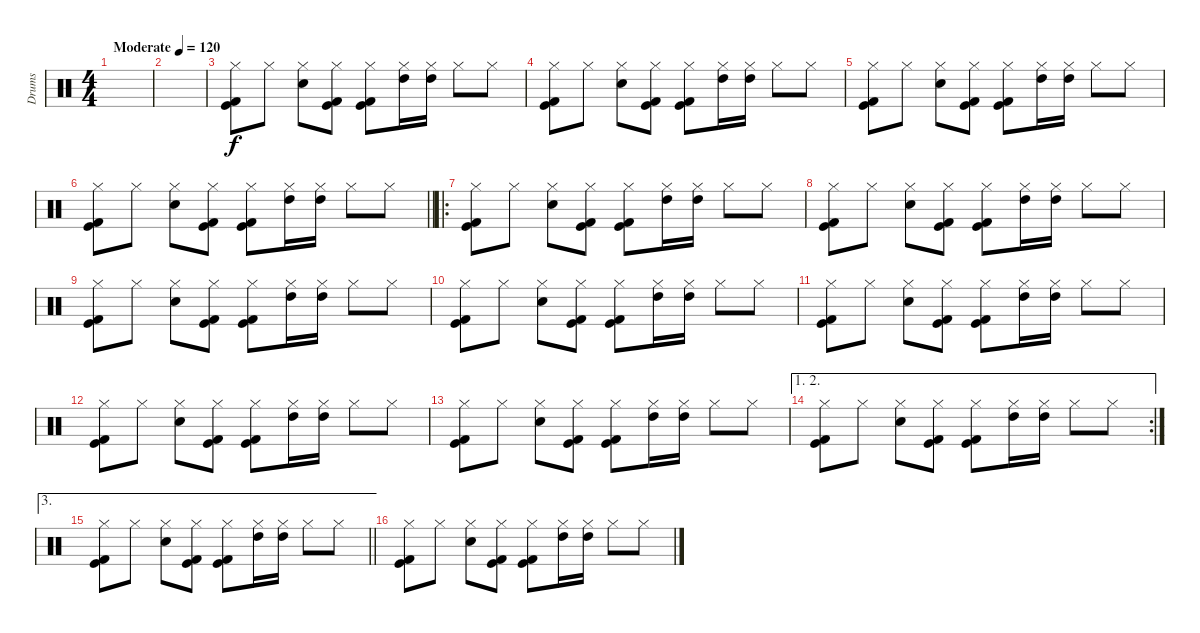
\track ("Drums" "Drums") {instrument percussion}
\staff {score}
\articulation defaults
\ts (4 4)
\tempo (120 "Moderate")
\clef neutral
\ks c
|
|
("Hi-Hat (closed)" "Kick (hit) 2" "Kick (hit)").8 "Hi-Hat (closed)".8 ("Hi-Hat (closed)" "Snare (hit) 2").8 ("Hi-Hat (closed)" "Kick (hit) 2" "Kick (hit)").8 ("Hi-Hat (closed)" "Kick (hit) 2" "Kick (hit)").8 ("Hi-Hat (closed)" "High Tom (hit)").16 ("Hi-Hat (closed)" "High Tom (hit)").16 "Hi-Hat (closed)".8 "Hi-Hat (closed)".8 |
("Hi-Hat (closed)" "Kick (hit) 2" "Kick (hit)").8 "Hi-Hat (closed)".8 ("Hi-Hat (closed)" "Snare (hit) 2").8 ("Hi-Hat (closed)" "Kick (hit) 2" "Kick (hit)").8 ("Hi-Hat (closed)" "Kick (hit) 2" "Kick (hit)").8 ("Hi-Hat (closed)" "High Tom (hit)").16 ("Hi-Hat (closed)" "High Tom (hit)").16 "Hi-Hat (closed)".8 "Hi-Hat (closed)".8 |
("Hi-Hat (closed)" "Kick (hit) 2" "Kick (hit)").8 "Hi-Hat (closed)".8 ("Hi-Hat (closed)" "Snare (hit) 2").8 ("Hi-Hat (closed)" "Kick (hit) 2" "Kick (hit)").8 ("Hi-Hat (closed)" "Kick (hit) 2" "Kick (hit)").8 ("Hi-Hat (closed)" "High Tom (hit)").16 ("Hi-Hat (closed)" "High Tom (hit)").16 "Hi-Hat (closed)".8 "Hi-Hat (closed)".8 |
\barLineRight lightlight
("Hi-Hat (closed)" "Kick (hit) 2" "Kick (hit)").8 "Hi-Hat (closed)".8 ("Hi-Hat (closed)" "Snare (hit) 2").8 ("Hi-Hat (closed)" "Kick (hit) 2" "Kick (hit)").8 ("Hi-Hat (closed)" "Kick (hit) 2" "Kick (hit)").8 ("Hi-Hat (closed)" "High Tom (hit)").16 ("Hi-Hat (closed)" "High Tom (hit)").16 "Hi-Hat (closed)".8 "Hi-Hat (closed)".8 |
\ro
("Hi-Hat (closed)" "Kick (hit) 2" "Kick (hit)").8 "Hi-Hat (closed)".8 ("Hi-Hat (closed)" "Snare (hit) 2").8 ("Hi-Hat (closed)" "Kick (hit) 2" "Kick (hit)").8 ("Hi-Hat (closed)" "Kick (hit) 2" "Kick (hit)").8 ("Hi-Hat (closed)" "High Tom (hit)").16 ("Hi-Hat (closed)" "High Tom (hit)").16 "Hi-Hat (closed)".8 "Hi-Hat (closed)".8 |
("Hi-Hat (closed)" "Kick (hit) 2" "Kick (hit)").8 "Hi-Hat (closed)".8 ("Hi-Hat (closed)" "Snare (hit) 2").8 ("Hi-Hat (closed)" "Kick (hit) 2" "Kick (hit)").8 ("Hi-Hat (closed)" "Kick (hit) 2" "Kick (hit)").8 ("Hi-Hat (closed)" "High Tom (hit)").16 ("Hi-Hat (closed)" "High Tom (hit)").16 "Hi-Hat (closed)".8 "Hi-Hat (closed)".8 |
("Hi-Hat (closed)" "Kick (hit) 2" "Kick (hit)").8 "Hi-Hat (closed)".8 ("Hi-Hat (closed)" "Snare (hit) 2").8 ("Hi-Hat (closed)" "Kick (hit) 2" "Kick (hit)").8 ("Hi-Hat (closed)" "Kick (hit) 2" "Kick (hit)").8 ("Hi-Hat (closed)" "High Tom (hit)").16 ("Hi-Hat (closed)" "High Tom (hit)").16 "Hi-Hat (closed)".8 "Hi-Hat (closed)".8 |
("Hi-Hat (closed)" "Kick (hit) 2" "Kick (hit)").8 "Hi-Hat (closed)".8 ("Hi-Hat (closed)" "Snare (hit) 2").8 ("Hi-Hat (closed)" "Kick (hit) 2" "Kick (hit)").8 ("Hi-Hat (closed)" "Kick (hit) 2" "Kick (hit)").8 ("Hi-Hat (closed)" "High Tom (hit)").16 ("Hi-Hat (closed)" "High Tom (hit)").16 "Hi-Hat (closed)".8 "Hi-Hat (closed)".8 |
("Hi-Hat (closed)" "Kick (hit) 2" "Kick (hit)").8 "Hi-Hat (closed)".8 ("Hi-Hat (closed)" "Snare (hit) 2").8 ("Hi-Hat (closed)" "Kick (hit) 2" "Kick (hit)").8 ("Hi-Hat (closed)" "Kick (hit) 2" "Kick (hit)").8 ("Hi-Hat (closed)" "High Tom (hit)").16 ("Hi-Hat (closed)" "High Tom (hit)").16 "Hi-Hat (closed)".8 "Hi-Hat (closed)".8 |
("Hi-Hat (closed)" "Kick (hit) 2" "Kick (hit)").8 "Hi-Hat (closed)".8 ("Hi-Hat (closed)" "Snare (hit) 2").8 ("Hi-Hat (closed)" "Kick (hit) 2" "Kick (hit)").8 ("Hi-Hat (closed)" "Kick (hit) 2" "Kick (hit)").8 ("Hi-Hat (closed)" "High Tom (hit)").16 ("Hi-Hat (closed)" "High Tom (hit)").16 "Hi-Hat (closed)".8 "Hi-Hat (closed)".8 |
("Hi-Hat (closed)" "Kick (hit) 2" "Kick (hit)").8 "Hi-Hat (closed)".8 ("Hi-Hat (closed)" "Snare (hit) 2").8 ("Hi-Hat (closed)" "Kick (hit) 2" "Kick (hit)").8 ("Hi-Hat (closed)" "Kick (hit) 2" "Kick (hit)").8 ("Hi-Hat (closed)" "High Tom (hit)").16 ("Hi-Hat (closed)" "High Tom (hit)").16 "Hi-Hat (closed)".8 "Hi-Hat (closed)".8 |
\ae (1 2)
\rc 2
("Hi-Hat (closed)" "Kick (hit) 2" "Kick (hit)").8 "Hi-Hat (closed)".8 ("Hi-Hat (closed)" "Snare (hit) 2").8 ("Hi-Hat (closed)" "Kick (hit) 2" "Kick (hit)").8 ("Hi-Hat (closed)" "Kick (hit) 2" "Kick (hit)").8 ("Hi-Hat (closed)" "High Tom (hit)").16 ("Hi-Hat (closed)" "High Tom (hit)").16 "Hi-Hat (closed)".8 "Hi-Hat (closed)".8 |
\ae 3
\barLineRight lightlight
("Hi-Hat (closed)" "Kick (hit) 2" "Kick (hit)").8 "Hi-Hat (closed)".8 ("Hi-Hat (closed)" "Snare (hit) 2").8 ("Hi-Hat (closed)" "Kick (hit) 2" "Kick (hit)").8 ("Hi-Hat (closed)" "Kick (hit) 2" "Kick (hit)").8 ("Hi-Hat (closed)" "High Tom (hit)").16 ("Hi-Hat (closed)" "High Tom (hit)").16 "Hi-Hat (closed)".8 "Hi-Hat (closed)".8 |
("Hi-Hat (closed)" "Kick (hit) 2" "Kick (hit)").8 "Hi-Hat (closed)".8 ("Hi-Hat (closed)" "Snare (hit) 2").8 ("Hi-Hat (closed)" "Kick (hit) 2" "Kick (hit)").8 ("Hi-Hat (closed)" "Kick (hit) 2" "Kick (hit)").8 ("Hi-Hat (closed)" "High Tom (hit)").16 ("Hi-Hat (closed)" "High Tom (hit)").16 "Hi-Hat (closed)".8 "Hi-Hat (closed)".8
